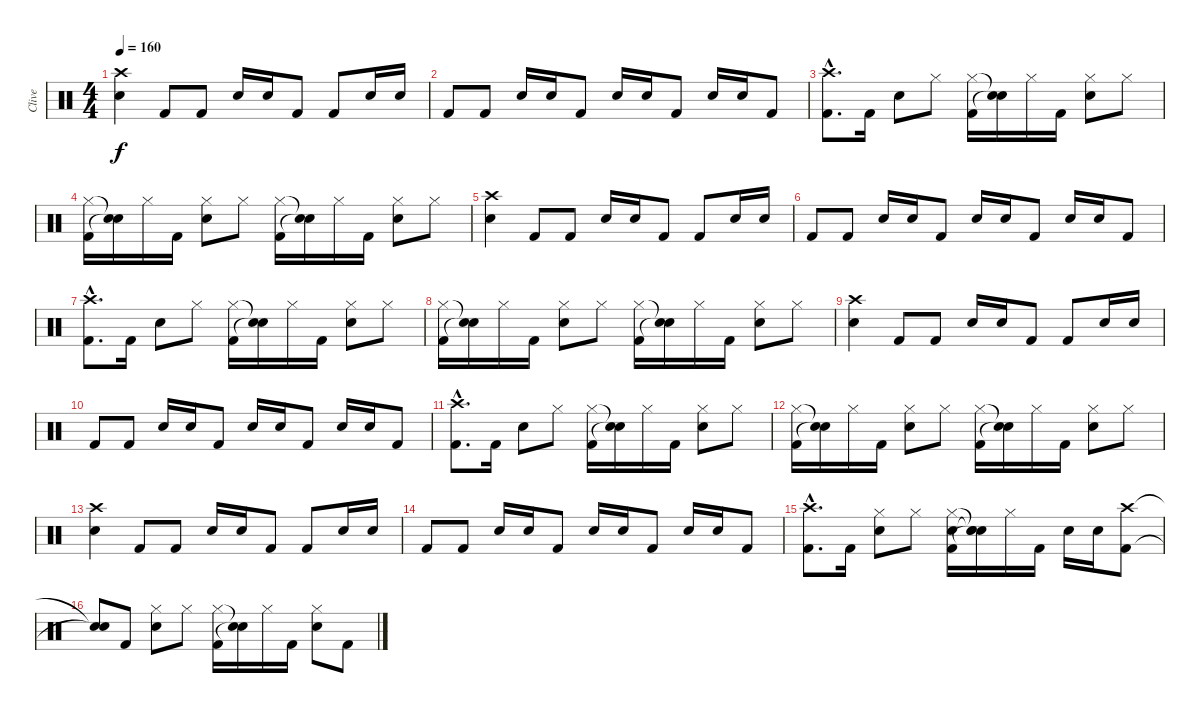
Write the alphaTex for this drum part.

\track ("Clive" "Clive") {instrument percussion}
\staff {score}
\articulation defaults
\ts (4 4)
\tempo 160
\clef neutral
\ks c
("Crash high (hit)" "Snare (hit) 2").4{dy f} "Kick (hit) 2".8 "Kick (hit) 2".8 "Snare (hit) 2".16 "Snare (hit) 2".16 "Kick (hit) 2".8 "Kick (hit) 2".8 "Snare (hit) 2".16 "Snare (hit) 2".16 |
"Kick (hit) 2".8 "Kick (hit) 2".8 "Snare (hit) 2".16 "Snare (hit) 2".16 "Kick (hit) 2".8 "Snare (hit) 2".16 "Snare (hit) 2".16 "Kick (hit) 2".8 "Snare (hit) 2".16 "Snare (hit) 2".16 "Kick (hit) 2".8 |
("Crash high (hit)"{hac} "Kick (hit) 2"{hac}).8{d} "Kick (hit) 2".16 "Snare (hit) 2".8 "Hi-Hat (closed)".8 ("Hi-Hat (closed)" "Kick (hit) 2").16 ("Snare (hit)"{t} "Snare (hit)"{t}).16 "Hi-Hat (closed)".16 "Kick (hit) 2".16 ("Hi-Hat (closed)" "Snare (hit) 2").8 "Hi-Hat (closed)".8 |
("Hi-Hat (closed)" "Kick (hit) 2").16 ("Snare (hit)"{t} "Snare (hit)"{t}).16 "Hi-Hat (closed)".16 "Kick (hit) 2".16 ("Hi-Hat (closed)" "Snare (hit) 2").8 "Hi-Hat (closed)".8 ("Hi-Hat (closed)" "Kick (hit) 2").16 ("Snare (hit)"{t} "Snare (hit)"{t}).16 "Hi-Hat (closed)".16 "Kick (hit) 2".16 ("Hi-Hat (closed)" "Snare (hit) 2").8 "Hi-Hat (closed)".8 |
("Crash high (hit)" "Snare (hit) 2").4 "Kick (hit) 2".8 "Kick (hit) 2".8 "Snare (hit) 2".16 "Snare (hit) 2".16 "Kick (hit) 2".8 "Kick (hit) 2".8 "Snare (hit) 2".16 "Snare (hit) 2".16 |
"Kick (hit) 2".8 "Kick (hit) 2".8 "Snare (hit) 2".16 "Snare (hit) 2".16 "Kick (hit) 2".8 "Snare (hit) 2".16 "Snare (hit) 2".16 "Kick (hit) 2".8 "Snare (hit) 2".16 "Snare (hit) 2".16 "Kick (hit) 2".8 |
("Crash high (hit)"{hac} "Kick (hit) 2"{hac}).8{d} "Kick (hit) 2".16 "Snare (hit) 2".8 "Hi-Hat (closed)".8 ("Hi-Hat (closed)" "Kick (hit) 2").16 ("Snare (hit)"{t} "Snare (hit)"{t}).16 "Hi-Hat (closed)".16 "Kick (hit) 2".16 ("Hi-Hat (closed)" "Snare (hit) 2").8 "Hi-Hat (closed)".8 |
("Hi-Hat (closed)" "Kick (hit) 2").16 ("Snare (hit)"{t} "Snare (hit)"{t}).16 "Hi-Hat (closed)".16 "Kick (hit) 2".16 ("Hi-Hat (closed)" "Snare (hit) 2").8 "Hi-Hat (closed)".8 ("Hi-Hat (closed)" "Kick (hit) 2").16 ("Snare (hit)"{t} "Snare (hit)"{t}).16 "Hi-Hat (closed)".16 "Kick (hit) 2".16 ("Hi-Hat (closed)" "Snare (hit) 2").8 "Hi-Hat (closed)".8 |
("Crash high (hit)" "Snare (hit) 2").4 "Kick (hit) 2".8 "Kick (hit) 2".8 "Snare (hit) 2".16 "Snare (hit) 2".16 "Kick (hit) 2".8 "Kick (hit) 2".8 "Snare (hit) 2".16 "Snare (hit) 2".16 |
"Kick (hit) 2".8 "Kick (hit) 2".8 "Snare (hit) 2".16 "Snare (hit) 2".16 "Kick (hit) 2".8 "Snare (hit) 2".16 "Snare (hit) 2".16 "Kick (hit) 2".8 "Snare (hit) 2".16 "Snare (hit) 2".16 "Kick (hit) 2".8 |
("Crash high (hit)"{hac} "Kick (hit) 2"{hac}).8{d} "Kick (hit) 2".16 "Snare (hit) 2".8 "Hi-Hat (closed)".8 ("Hi-Hat (closed)" "Kick (hit) 2").16 ("Snare (hit)"{t} "Snare (hit)"{t}).16 "Hi-Hat (closed)".16 "Kick (hit) 2".16 ("Hi-Hat (closed)" "Snare (hit) 2").8 "Hi-Hat (closed)".8 |
("Hi-Hat (closed)" "Kick (hit) 2").16 ("Snare (hit)"{t} "Snare (hit)"{t}).16 "Hi-Hat (closed)".16 "Kick (hit) 2".16 ("Hi-Hat (closed)" "Snare (hit) 2").8 "Hi-Hat (closed)".8 ("Hi-Hat (closed)" "Kick (hit) 2").16 ("Snare (hit)"{t} "Snare (hit)"{t}).16 "Hi-Hat (closed)".16 "Kick (hit) 2".16 ("Hi-Hat (closed)" "Snare (hit) 2").8 "Hi-Hat (closed)".8 |
("Crash high (hit)" "Snare (hit) 2").4 "Kick (hit) 2".8 "Kick (hit) 2".8 "Snare (hit) 2".16 "Snare (hit) 2".16 "Kick (hit) 2".8 "Kick (hit) 2".8 "Snare (hit) 2".16 "Snare (hit) 2".16 |
"Kick (hit) 2".8 "Kick (hit) 2".8 "Snare (hit) 2".16 "Snare (hit) 2".16 "Kick (hit) 2".8 "Snare (hit) 2".16 "Snare (hit) 2".16 "Kick (hit) 2".8 "Snare (hit) 2".16 "Snare (hit) 2".16 "Kick (hit) 2".8 |
("Crash high (hit)"{hac} "Kick (hit) 2"{hac}).8{d} "Kick (hit) 2".16 ("Hi-Hat (closed)" "Snare (hit) 2").8 "Hi-Hat (closed)".8 ("Hi-Hat (closed)" "Snare (hit) 2" "Kick (hit) 2").16 ("Snare (hit)"{t} "Snare (hit)"{t} "Snare (hit)"{t}).16 "Hi-Hat (closed)".16 "Kick (hit) 2".16 "Snare (hit) 2".16 "Snare (hit) 2".16 ("Crash high (hit)" "Kick (hit) 2").8 |
("Snare (hit)"{t} "Snare (hit)"{t}).8 "Kick (hit) 2".8 ("Hi-Hat (closed)" "Snare (hit) 2").8 "Hi-Hat (closed)".8 ("Hi-Hat (closed)" "Kick (hit) 2").16 ("Snare (hit)"{t} "Snare (hit)"{t}).16 "Hi-Hat (closed)".16 "Kick (hit) 2".16 ("Hi-Hat (closed)" "Snare (hit) 2").8 "Kick (hit) 2".8
